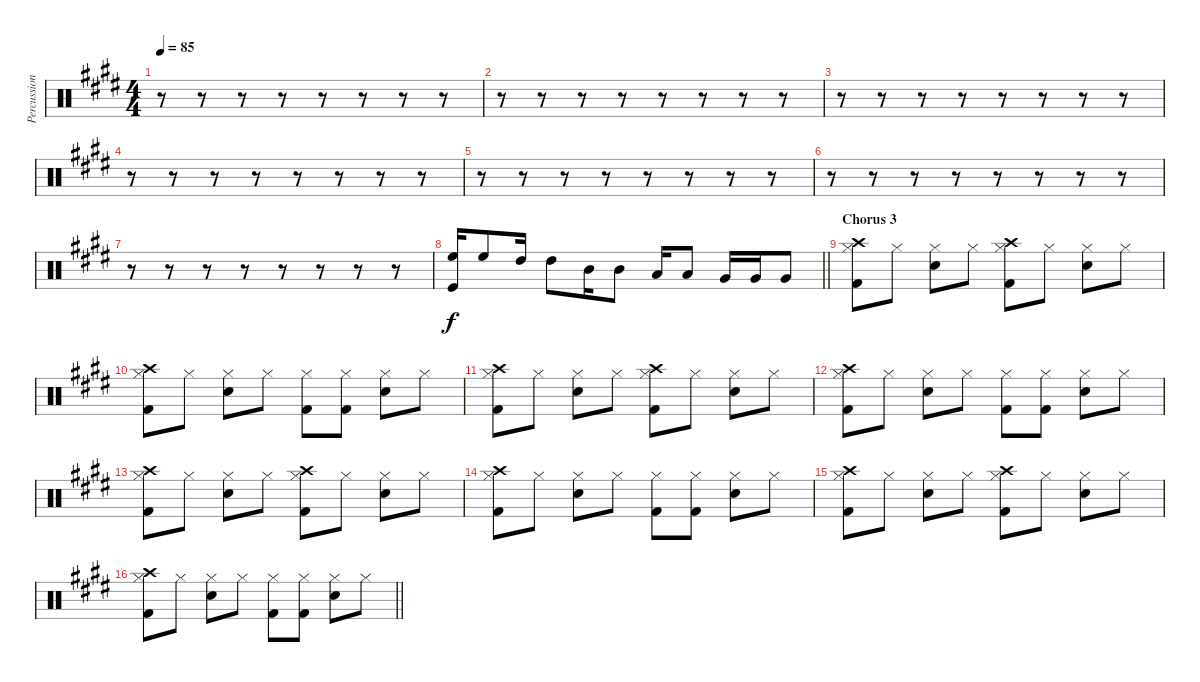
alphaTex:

\track ("Percussion" "Percussion") {instrument percussion}
\staff {score}
\articulation defaults
\ts (4 4)
\tempo 85
\clef neutral
\ks e
r.8{dy f} r.8 r.8 r.8 r.8 r.8 r.8 r.8 |
r.8 r.8 r.8 r.8 r.8 r.8 r.8 r.8 |
r.8 r.8 r.8 r.8 r.8 r.8 r.8 r.8 |
r.8 r.8 r.8 r.8 r.8 r.8 r.8 r.8 |
r.8 r.8 r.8 r.8 r.8 r.8 r.8 r.8 |
r.8 r.8 r.8 r.8 r.8 r.8 r.8 r.8 |
r.8 r.8 r.8 r.8 r.8 r.8 r.8 r.8 |
\barLineRight lightlight
("Kick (hit)" "High Floor Tom (hit)").16 "High Floor Tom (hit)".8 "High Tom (hit)".16 "High Tom (hit)".8 "Mid Tom (hit)".16 "Mid Tom (hit)".8 "Low Tom (hit)".16 "Low Tom (hit)".8 "Very Low Tom (hit)".16 "Very Low Tom (hit)".16 "Very Low Tom (hit)".8 |
\section ("" "Chorus 3")
("Kick (hit) 2" "Hi-Hat (closed)" "Crash high (hit)").8 "Hi-Hat (closed)".8 ("Snare (hit) 2" "Hi-Hat (closed)").8 "Hi-Hat (closed)".8 ("Kick (hit) 2" "Hi-Hat (closed)" "Crash high (hit)").8 "Hi-Hat (closed)".8 ("Snare (hit) 2" "Hi-Hat (closed)").8 "Hi-Hat (closed)".8 |
("Kick (hit) 2" "Hi-Hat (closed)" "Crash high (hit)").8 "Hi-Hat (closed)".8 ("Snare (hit) 2" "Hi-Hat (closed)").8 "Hi-Hat (closed)".8 ("Kick (hit) 2" "Hi-Hat (closed)").8 ("Kick (hit) 2" "Hi-Hat (closed)").8 ("Snare (hit) 2" "Hi-Hat (closed)").8 "Hi-Hat (closed)".8 |
("Kick (hit) 2" "Hi-Hat (closed)" "Crash high (hit)").8 "Hi-Hat (closed)".8 ("Snare (hit) 2" "Hi-Hat (closed)").8 "Hi-Hat (closed)".8 ("Kick (hit) 2" "Hi-Hat (closed)" "Crash high (hit)").8 "Hi-Hat (closed)".8 ("Snare (hit) 2" "Hi-Hat (closed)").8 "Hi-Hat (closed)".8 |
("Kick (hit) 2" "Hi-Hat (closed)" "Crash high (hit)").8 "Hi-Hat (closed)".8 ("Snare (hit) 2" "Hi-Hat (closed)").8 "Hi-Hat (closed)".8 ("Kick (hit) 2" "Hi-Hat (closed)").8 ("Kick (hit) 2" "Hi-Hat (closed)").8 ("Snare (hit) 2" "Hi-Hat (closed)").8 "Hi-Hat (closed)".8 |
("Kick (hit) 2" "Hi-Hat (closed)" "Crash high (hit)").8 "Hi-Hat (closed)".8 ("Snare (hit) 2" "Hi-Hat (closed)").8 "Hi-Hat (closed)".8 ("Kick (hit) 2" "Hi-Hat (closed)" "Crash high (hit)").8 "Hi-Hat (closed)".8 ("Snare (hit) 2" "Hi-Hat (closed)").8 "Hi-Hat (closed)".8 |
("Kick (hit) 2" "Hi-Hat (closed)" "Crash high (hit)").8 "Hi-Hat (closed)".8 ("Snare (hit) 2" "Hi-Hat (closed)").8 "Hi-Hat (closed)".8 ("Kick (hit) 2" "Hi-Hat (closed)").8 ("Kick (hit) 2" "Hi-Hat (closed)").8 ("Snare (hit) 2" "Hi-Hat (closed)").8 "Hi-Hat (closed)".8 |
("Kick (hit) 2" "Hi-Hat (closed)" "Crash high (hit)").8 "Hi-Hat (closed)".8 ("Snare (hit) 2" "Hi-Hat (closed)").8 "Hi-Hat (closed)".8 ("Kick (hit) 2" "Hi-Hat (closed)" "Crash high (hit)").8 "Hi-Hat (closed)".8 ("Snare (hit) 2" "Hi-Hat (closed)").8 "Hi-Hat (closed)".8 |
\barLineRight lightlight
("Kick (hit) 2" "Hi-Hat (closed)" "Crash high (hit)").8 "Hi-Hat (closed)".8 ("Snare (hit) 2" "Hi-Hat (closed)").8 "Hi-Hat (closed)".8 ("Kick (hit) 2" "Hi-Hat (closed)").8 ("Kick (hit) 2" "Hi-Hat (closed)").8 ("Snare (hit) 2" "Hi-Hat (closed)").8 "Hi-Hat (closed)".8
